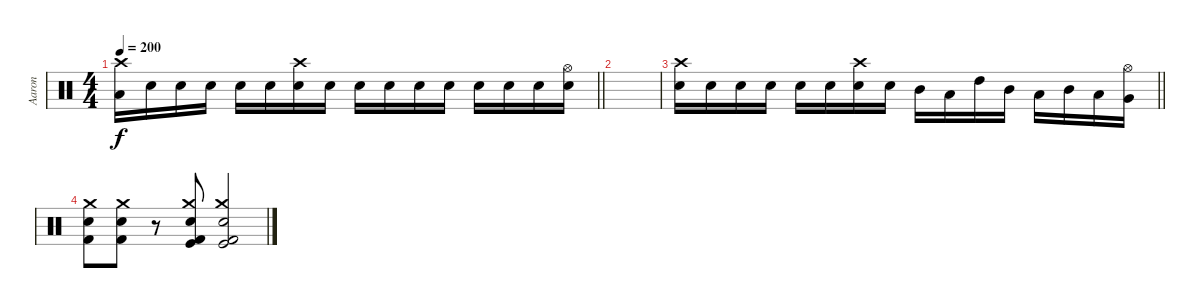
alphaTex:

\track ("Aaron" "Aaron") {instrument percussion}
\staff {score}
\articulation defaults
\ts (4 4)
\tempo 200
\clef neutral
\barLineRight lightlight
\ks c
("Crash high (hit)" "Low Tom (hit)").16{dy f} "Snare (hit) 2".16 "Snare (hit) 2".16 "Snare (hit) 2".16 "Snare (hit) 2".16 "Snare (hit) 2".16 ("Crash high (hit)" "Snare (hit) 2").16 "Snare (hit) 2".16 "Snare (hit) 2".16 "Snare (hit) 2".16 "Snare (hit) 2".16 "Snare (hit) 2".16 "Snare (hit) 2".16 "Snare (hit) 2".16 "Snare (hit) 2".16 ("Hi-Hat (open)" "Snare (hit) 2").16 |
|
\barLineRight lightlight
("Crash high (hit)" "Snare (hit) 2").16 "Snare (hit) 2".16 "Snare (hit) 2".16 "Snare (hit) 2".16 "Snare (hit) 2".16 "Snare (hit) 2".16 ("Crash high (hit)" "Snare (hit) 2").16 "Snare (hit) 2".16 "Mid Tom (hit)".16 "Low Tom (hit)".16 "High Tom (hit)".16 "Mid Tom (hit)".16 "Low Tom (hit)".16 "Mid Tom (hit)".16 "Low Tom (hit)".16 ("Hi-Hat (open)" "Very Low Tom (hit)").16 |
("Kick (hit) 2" "Snare (hit) 2" "Crash medium (hit)").8 ("Kick (hit) 2" "Snare (hit) 2" "Crash medium (hit)").8 r.8 ("Crash medium (hit)" "Snare (hit) 2" "Kick (hit) 2" "Kick (hit)").8 ("Crash medium (hit)" "Snare (hit) 2" "Kick (hit) 2" "Kick (hit)").2
